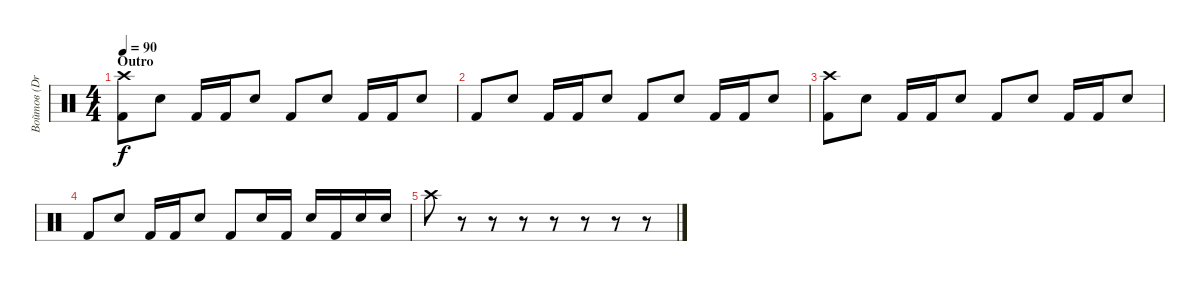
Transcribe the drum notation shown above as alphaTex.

\track ("Войтов (Drums)" "Войтов (Dr") {instrument percussion}
\staff {score}
\articulation defaults
\ts (4 4)
\section ("" "Outro")
\tempo 90
\clef neutral
\ks c
("Kick (hit) 2" "Crash high (hit)").8{dy f} "Electric Snare (hit)".8 "Kick (hit) 2".16 "Kick (hit) 2".16 "Electric Snare (hit)".8 "Kick (hit) 2".8 "Electric Snare (hit)".8 "Kick (hit) 2".16 "Kick (hit) 2".16 "Electric Snare (hit)".8 |
"Kick (hit) 2".8 "Electric Snare (hit)".8 "Kick (hit) 2".16 "Kick (hit) 2".16 "Electric Snare (hit)".8 "Kick (hit) 2".8 "Electric Snare (hit)".8 "Kick (hit) 2".16 "Kick (hit) 2".16 "Electric Snare (hit)".8 |
("Kick (hit) 2" "Crash high (hit)").8 "Electric Snare (hit)".8 "Kick (hit) 2".16 "Kick (hit) 2".16 "Electric Snare (hit)".8 "Kick (hit) 2".8 "Electric Snare (hit)".8 "Kick (hit) 2".16 "Kick (hit) 2".16 "Electric Snare (hit)".8 |
"Kick (hit) 2".8 "Electric Snare (hit)".8 "Kick (hit) 2".16 "Kick (hit) 2".16 "Electric Snare (hit)".8 "Kick (hit) 2".8 "Electric Snare (hit)".16 "Kick (hit) 2".16 "Electric Snare (hit)".16 "Kick (hit) 2".16 "Electric Snare (hit)".16 "Electric Snare (hit)".16 |
"Crash high (hit)".8 r.8 r.8 r.8 r.8 r.8 r.8 r.8
